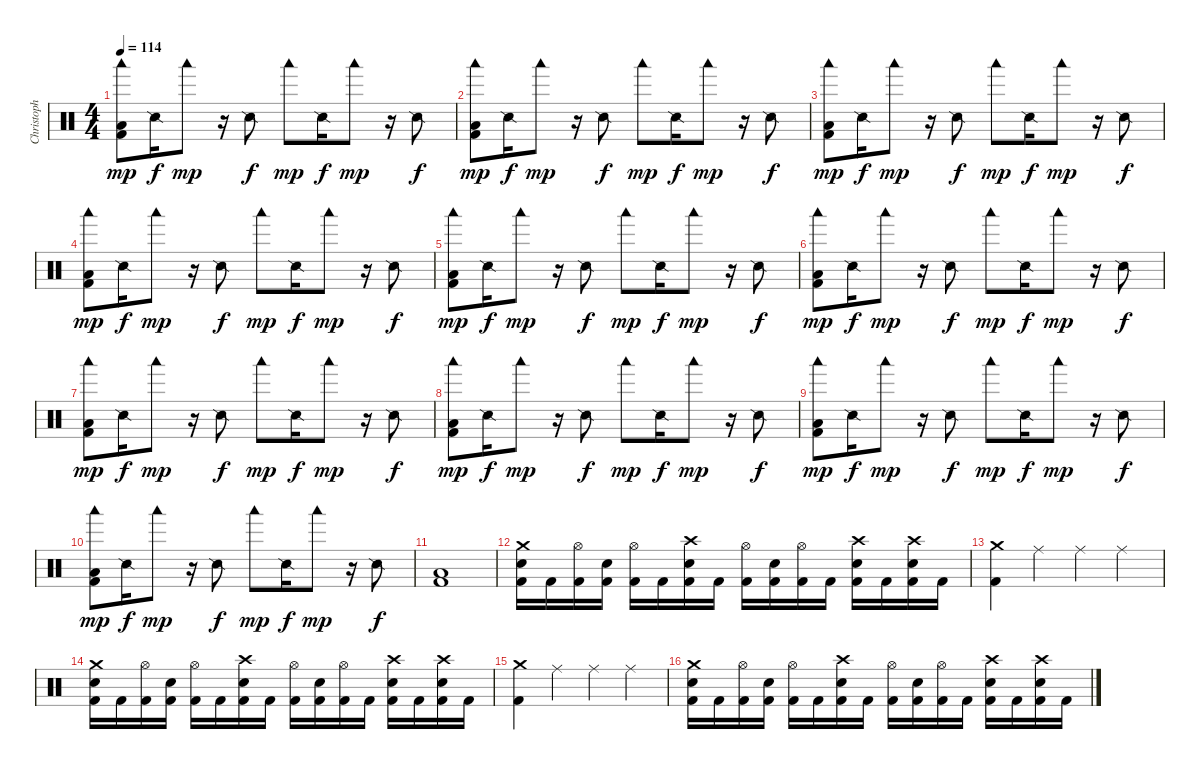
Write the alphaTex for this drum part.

\track ("Christoph Schneider [Drums]" "Christoph ") {instrument percussion}
\staff {score}
\articulation defaults
\ts (4 4)
\tempo 114
\clef neutral
\ks c
("Woodblock low (hit)" "Low Floor Tom (hit)" "Kick (hit) 2").8{dy mp} "Snare (side stick) 2".16{dy f} "Woodblock low (hit)".8{dy mp} r.16 "Snare (side stick) 2".8{dy f} "Woodblock low (hit)".8{dy mp} "Snare (side stick) 2".16{dy f} "Woodblock low (hit)".8{dy mp} r.16 "Snare (side stick) 2".8{dy f} |
("Woodblock low (hit)" "Low Floor Tom (hit)" "Kick (hit) 2").8{dy mp} "Snare (side stick) 2".16{dy f} "Woodblock low (hit)".8{dy mp} r.16 "Snare (side stick) 2".8{dy f} "Woodblock low (hit)".8{dy mp} "Snare (side stick) 2".16{dy f} "Woodblock low (hit)".8{dy mp} r.16 "Snare (side stick) 2".8{dy f} |
("Woodblock low (hit)" "Low Floor Tom (hit)" "Kick (hit) 2").8{dy mp} "Snare (side stick) 2".16{dy f} "Woodblock low (hit)".8{dy mp} r.16 "Snare (side stick) 2".8{dy f} "Woodblock low (hit)".8{dy mp} "Snare (side stick) 2".16{dy f} "Woodblock low (hit)".8{dy mp} r.16 "Snare (side stick) 2".8{dy f} |
("Woodblock low (hit)" "Low Floor Tom (hit)" "Kick (hit) 2").8{dy mp} "Snare (side stick) 2".16{dy f} "Woodblock low (hit)".8{dy mp} r.16 "Snare (side stick) 2".8{dy f} "Woodblock low (hit)".8{dy mp} "Snare (side stick) 2".16{dy f} "Woodblock low (hit)".8{dy mp} r.16 "Snare (side stick) 2".8{dy f} |
("Woodblock low (hit)" "Low Floor Tom (hit)" "Kick (hit) 2").8{dy mp} "Snare (side stick) 2".16{dy f} "Woodblock low (hit)".8{dy mp} r.16 "Snare (side stick) 2".8{dy f} "Woodblock low (hit)".8{dy mp} "Snare (side stick) 2".16{dy f} "Woodblock low (hit)".8{dy mp} r.16 "Snare (side stick) 2".8{dy f} |
("Woodblock low (hit)" "Low Floor Tom (hit)" "Kick (hit) 2").8{dy mp} "Snare (side stick) 2".16{dy f} "Woodblock low (hit)".8{dy mp} r.16 "Snare (side stick) 2".8{dy f} "Woodblock low (hit)".8{dy mp} "Snare (side stick) 2".16{dy f} "Woodblock low (hit)".8{dy mp} r.16 "Snare (side stick) 2".8{dy f} |
("Woodblock low (hit)" "Low Floor Tom (hit)" "Kick (hit) 2").8{dy mp} "Snare (side stick) 2".16{dy f} "Woodblock low (hit)".8{dy mp} r.16 "Snare (side stick) 2".8{dy f} "Woodblock low (hit)".8{dy mp} "Snare (side stick) 2".16{dy f} "Woodblock low (hit)".8{dy mp} r.16 "Snare (side stick) 2".8{dy f} |
("Woodblock low (hit)" "Low Floor Tom (hit)" "Kick (hit) 2").8{dy mp} "Snare (side stick) 2".16{dy f} "Woodblock low (hit)".8{dy mp} r.16 "Snare (side stick) 2".8{dy f} "Woodblock low (hit)".8{dy mp} "Snare (side stick) 2".16{dy f} "Woodblock low (hit)".8{dy mp} r.16 "Snare (side stick) 2".8{dy f} |
("Woodblock low (hit)" "Low Floor Tom (hit)" "Kick (hit) 2").8{dy mp} "Snare (side stick) 2".16{dy f} "Woodblock low (hit)".8{dy mp} r.16 "Snare (side stick) 2".8{dy f} "Woodblock low (hit)".8{dy mp} "Snare (side stick) 2".16{dy f} "Woodblock low (hit)".8{dy mp} r.16 "Snare (side stick) 2".8{dy f} |
("Woodblock low (hit)" "Low Floor Tom (hit)" "Kick (hit) 2").8{dy mp} "Snare (side stick) 2".16{dy f} "Woodblock low (hit)".8{dy mp} r.16 "Snare (side stick) 2".8{dy f} "Woodblock low (hit)".8{dy mp} "Snare (side stick) 2".16{dy f} "Woodblock low (hit)".8{dy mp} r.16 "Snare (side stick) 2".8{dy f} |
("Low Floor Tom (hit)" "Kick (hit) 2").1 |
("Crash medium (hit)" "Electric Snare (hit)" "Kick (hit) 2").16 "Kick (hit) 2".16 ("Hi-Hat (open)" "Kick (hit) 2").16 ("Electric Snare (hit)" "Kick (hit) 2").16 ("Hi-Hat (open)" "Kick (hit) 2").16 "Kick (hit) 2".16 ("Crash high (hit)" "Electric Snare (hit)" "Kick (hit) 2").16 "Kick (hit) 2".16 ("Hi-Hat (open)" "Kick (hit) 2").16 ("Electric Snare (hit)" "Kick (hit) 2").16 ("Hi-Hat (open)" "Kick (hit) 2").16 "Kick (hit) 2".16 ("Crash high (hit)" "Electric Snare (hit)" "Kick (hit) 2").16 "Kick (hit) 2".16 ("Crash high (hit)" "Electric Snare (hit)" "Kick (hit) 2").16 "Kick (hit) 2".16 |
("Crash medium (hit)" "Kick (hit) 2").4 "Ride (middle)".4 "Ride (middle)".4 "Ride (middle)".4 |
("Crash medium (hit)" "Electric Snare (hit)" "Kick (hit) 2").16 "Kick (hit) 2".16 ("Hi-Hat (open)" "Kick (hit) 2").16 ("Electric Snare (hit)" "Kick (hit) 2").16 ("Hi-Hat (open)" "Kick (hit) 2").16 "Kick (hit) 2".16 ("Crash high (hit)" "Electric Snare (hit)" "Kick (hit) 2").16 "Kick (hit) 2".16 ("Hi-Hat (open)" "Kick (hit) 2").16 ("Electric Snare (hit)" "Kick (hit) 2").16 ("Hi-Hat (open)" "Kick (hit) 2").16 "Kick (hit) 2".16 ("Crash high (hit)" "Electric Snare (hit)" "Kick (hit) 2").16 "Kick (hit) 2".16 ("Crash high (hit)" "Electric Snare (hit)" "Kick (hit) 2").16 "Kick (hit) 2".16 |
("Crash medium (hit)" "Kick (hit) 2").4 "Ride (middle)".4 "Ride (middle)".4 "Ride (middle)".4 |
("Crash medium (hit)" "Electric Snare (hit)" "Kick (hit) 2").16 "Kick (hit) 2".16 ("Hi-Hat (open)" "Kick (hit) 2").16 ("Electric Snare (hit)" "Kick (hit) 2").16 ("Hi-Hat (open)" "Kick (hit) 2").16 "Kick (hit) 2".16 ("Crash high (hit)" "Electric Snare (hit)" "Kick (hit) 2").16 "Kick (hit) 2".16 ("Hi-Hat (open)" "Kick (hit) 2").16 ("Electric Snare (hit)" "Kick (hit) 2").16 ("Hi-Hat (open)" "Kick (hit) 2").16 "Kick (hit) 2".16 ("Crash high (hit)" "Electric Snare (hit)" "Kick (hit) 2").16 "Kick (hit) 2".16 ("Crash high (hit)" "Electric Snare (hit)" "Kick (hit) 2").16 "Kick (hit) 2".16
